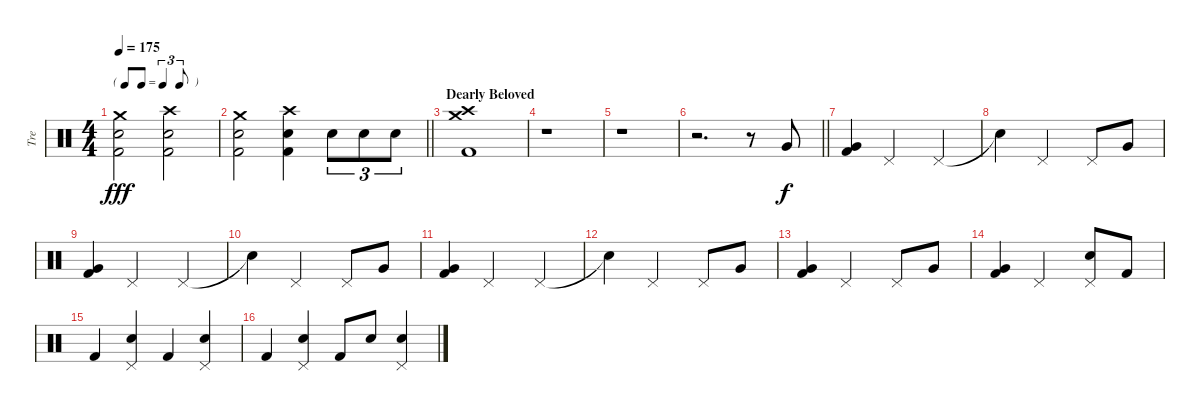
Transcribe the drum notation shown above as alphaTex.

\track ("Tre" "Tre") {instrument percussion}
\staff {score}
\articulation defaults
\ts (4 4)
\tf triplet8th
\tempo 175
\clef neutral
\ks c
("Crash medium (hit)" "Snare (hit) 2" "Kick (hit) 2").2{dy fff} ("Crash high (hit)" "Snare (hit) 2" "Kick (hit) 2").2 |
\barLineRight lightlight
("Crash medium (hit)" "Snare (hit) 2" "Kick (hit) 2").2 ("Crash high (hit)" "Snare (hit) 2" "Kick (hit) 2").4 "Snare (hit) 2".8{tu (3 2)} "Snare (hit) 2".8{tu (3 2)} "Snare (hit) 2".8{tu (3 2)} |
\section ("" "Dearly Beloved")
("Crash medium (hit)" "Crash high (hit)" "Kick (hit) 2").1 |
r.1 |
r.1 |
\barLineRight lightlight
r.2{d} r.8 "Very Low Tom (hit)".8{dy f} |
("Very Low Tom (hit)" "Kick (hit) 2").4 "Pedal Hi-Hat (hit)".2 "Pedal Hi-Hat (hit)".4 |
"Snare (hit)"{t}.4 "Pedal Hi-Hat (hit)".2 "Pedal Hi-Hat (hit)".8 "Very Low Tom (hit)".8 |
("Very Low Tom (hit)" "Kick (hit) 2").4 "Pedal Hi-Hat (hit)".2 "Pedal Hi-Hat (hit)".4 |
"Snare (hit)"{t}.4 "Pedal Hi-Hat (hit)".2 "Pedal Hi-Hat (hit)".8 "Very Low Tom (hit)".8 |
("Very Low Tom (hit)" "Kick (hit) 2").4 "Pedal Hi-Hat (hit)".2 "Pedal Hi-Hat (hit)".4 |
"Snare (hit)"{t}.4 "Pedal Hi-Hat (hit)".2 "Pedal Hi-Hat (hit)".8 "Very Low Tom (hit)".8 |
("Very Low Tom (hit)" "Kick (hit) 2").4 "Pedal Hi-Hat (hit)".2 "Pedal Hi-Hat (hit)".8 "Very Low Tom (hit)".8 |
("Very Low Tom (hit)" "Kick (hit) 2").4 "Pedal Hi-Hat (hit)".2 ("Snare (hit) 2" "Pedal Hi-Hat (hit)").8 "Kick (hit) 2".8 |
"Kick (hit) 2".4 ("Snare (hit) 2" "Pedal Hi-Hat (hit)").4 "Kick (hit) 2".4 ("Snare (hit) 2" "Pedal Hi-Hat (hit)").4 |
"Kick (hit) 2".4 ("Snare (hit) 2" "Pedal Hi-Hat (hit)").4 "Kick (hit) 2".8 "Snare (hit) 2".8 ("Snare (hit) 2" "Pedal Hi-Hat (hit)").4
